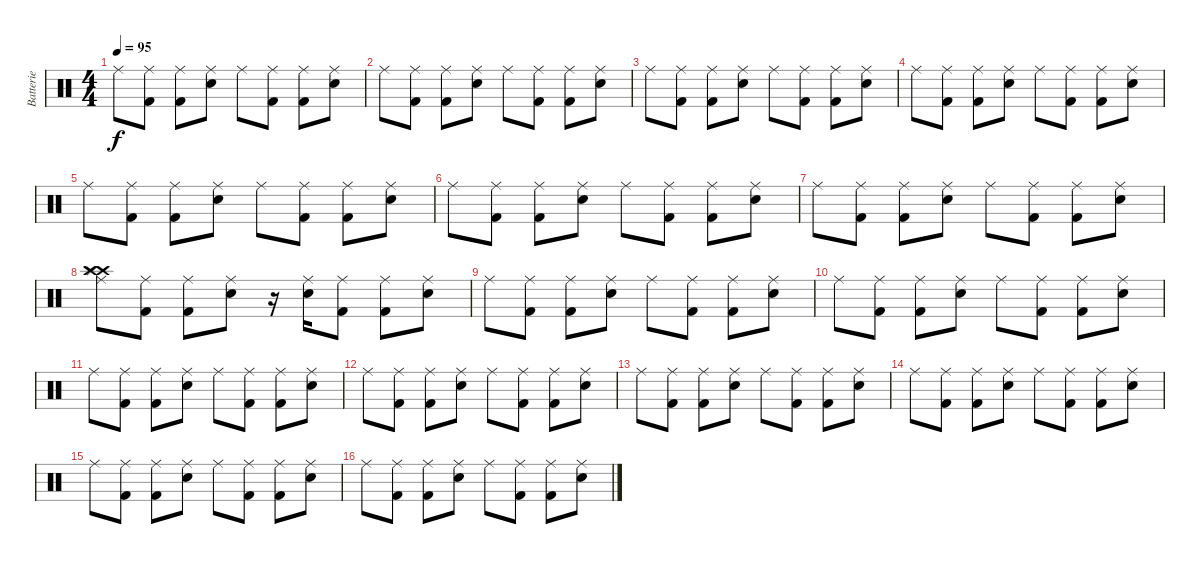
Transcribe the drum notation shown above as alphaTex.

\track ("Batterie" "Batterie") {instrument percussion}
\staff {score}
\articulation defaults
\ts (4 4)
\tempo 95
\clef neutral
\ks c "Ride (middle)".8{dy f}
("Ride (middle)" "Kick (hit) 2").8 ("Ride (middle)" "Kick (hit) 2").8 ("Ride (middle)" "Electric Snare (hit)").8 "Ride (middle)".8 ("Ride (middle)" "Kick (hit) 2").8 ("Ride (middle)" "Kick (hit) 2").8 ("Ride (middle)" "Electric Snare (hit)").8 |
"Ride (middle)".8 ("Ride (middle)" "Kick (hit) 2").8 ("Ride (middle)" "Kick (hit) 2").8 ("Ride (middle)" "Electric Snare (hit)").8 "Ride (middle)".8 ("Ride (middle)" "Kick (hit) 2").8 ("Ride (middle)" "Kick (hit) 2").8 ("Ride (middle)" "Electric Snare (hit)").8 |
"Ride (middle)".8 ("Ride (middle)" "Kick (hit) 2").8 ("Ride (middle)" "Kick (hit) 2").8 ("Ride (middle)" "Electric Snare (hit)").8 "Ride (middle)".8 ("Ride (middle)" "Kick (hit) 2").8 ("Ride (middle)" "Kick (hit) 2").8 ("Ride (middle)" "Electric Snare (hit)").8 |
"Ride (middle)".8 ("Ride (middle)" "Kick (hit) 2").8 ("Ride (middle)" "Kick (hit) 2").8 ("Ride (middle)" "Electric Snare (hit)").8 "Ride (middle)".8 ("Ride (middle)" "Kick (hit) 2").8 ("Ride (middle)" "Kick (hit) 2").8 ("Ride (middle)" "Electric Snare (hit)").8 |
"Ride (middle)".8 ("Ride (middle)" "Kick (hit) 2").8 ("Ride (middle)" "Kick (hit) 2").8 ("Ride (middle)" "Electric Snare (hit)").8 "Ride (middle)".8 ("Ride (middle)" "Kick (hit) 2").8 ("Ride (middle)" "Kick (hit) 2").8 ("Ride (middle)" "Electric Snare (hit)").8 |
"Ride (middle)".8 ("Ride (middle)" "Kick (hit) 2").8 ("Ride (middle)" "Kick (hit) 2").8 ("Ride (middle)" "Electric Snare (hit)").8 "Ride (middle)".8 ("Ride (middle)" "Kick (hit) 2").8 ("Ride (middle)" "Kick (hit) 2").8 ("Ride (middle)" "Electric Snare (hit)").8 |
"Ride (middle)".8 ("Ride (middle)" "Kick (hit) 2").8 ("Ride (middle)" "Kick (hit) 2").8 ("Ride (middle)" "Electric Snare (hit)").8 "Ride (middle)".8 ("Ride (middle)" "Kick (hit) 2").8 ("Ride (middle)" "Kick (hit) 2").8 ("Ride (middle)" "Electric Snare (hit)").8 |
("Ride (middle)" "Crash high (hit)" "Crash high (hit)" "Splash (hit)").8 ("Ride (middle)" "Kick (hit) 2").8 ("Ride (middle)" "Kick (hit) 2").8 ("Ride (middle)" "Electric Snare (hit)").8 r.16 ("Ride (middle)" "Electric Snare (hit)").16 ("Ride (middle)" "Kick (hit) 2").8 ("Ride (middle)" "Kick (hit) 2").8 ("Ride (middle)" "Electric Snare (hit)").8 |
"Ride (middle)".8 ("Ride (middle)" "Kick (hit) 2").8 ("Ride (middle)" "Kick (hit) 2").8 ("Ride (middle)" "Electric Snare (hit)").8 "Ride (middle)".8 ("Ride (middle)" "Kick (hit) 2").8 ("Ride (middle)" "Kick (hit) 2").8 ("Ride (middle)" "Electric Snare (hit)").8 |
"Ride (middle)".8 ("Ride (middle)" "Kick (hit) 2").8 ("Ride (middle)" "Kick (hit) 2").8 ("Ride (middle)" "Electric Snare (hit)").8 "Ride (middle)".8 ("Ride (middle)" "Kick (hit) 2").8 ("Ride (middle)" "Kick (hit) 2").8 ("Ride (middle)" "Electric Snare (hit)").8 |
"Ride (middle)".8 ("Ride (middle)" "Kick (hit) 2").8 ("Ride (middle)" "Kick (hit) 2").8 ("Ride (middle)" "Electric Snare (hit)").8 "Ride (middle)".8 ("Ride (middle)" "Kick (hit) 2").8 ("Ride (middle)" "Kick (hit) 2").8 ("Ride (middle)" "Electric Snare (hit)").8 |
"Ride (middle)".8 ("Ride (middle)" "Kick (hit) 2").8 ("Ride (middle)" "Kick (hit) 2").8 ("Ride (middle)" "Electric Snare (hit)").8 "Ride (middle)".8 ("Ride (middle)" "Kick (hit) 2").8 ("Ride (middle)" "Kick (hit) 2").8 ("Ride (middle)" "Electric Snare (hit)").8 |
"Ride (middle)".8 ("Ride (middle)" "Kick (hit) 2").8 ("Ride (middle)" "Kick (hit) 2").8 ("Ride (middle)" "Electric Snare (hit)").8 "Ride (middle)".8 ("Ride (middle)" "Kick (hit) 2").8 ("Ride (middle)" "Kick (hit) 2").8 ("Ride (middle)" "Electric Snare (hit)").8 |
"Ride (middle)".8 ("Ride (middle)" "Kick (hit) 2").8 ("Ride (middle)" "Kick (hit) 2").8 ("Ride (middle)" "Electric Snare (hit)").8 "Ride (middle)".8 ("Ride (middle)" "Kick (hit) 2").8 ("Ride (middle)" "Kick (hit) 2").8 ("Ride (middle)" "Electric Snare (hit)").8 |
"Ride (middle)".8 ("Ride (middle)" "Kick (hit) 2").8 ("Ride (middle)" "Kick (hit) 2").8 ("Ride (middle)" "Electric Snare (hit)").8 "Ride (middle)".8 ("Ride (middle)" "Kick (hit) 2").8 ("Ride (middle)" "Kick (hit) 2").8 ("Ride (middle)" "Electric Snare (hit)").8 |
"Ride (middle)".8 ("Ride (middle)" "Kick (hit) 2").8 ("Ride (middle)" "Kick (hit) 2").8 ("Ride (middle)" "Electric Snare (hit)").8 "Ride (middle)".8 ("Ride (middle)" "Kick (hit) 2").8 ("Ride (middle)" "Kick (hit) 2").8 ("Ride (middle)" "Electric Snare (hit)").8
